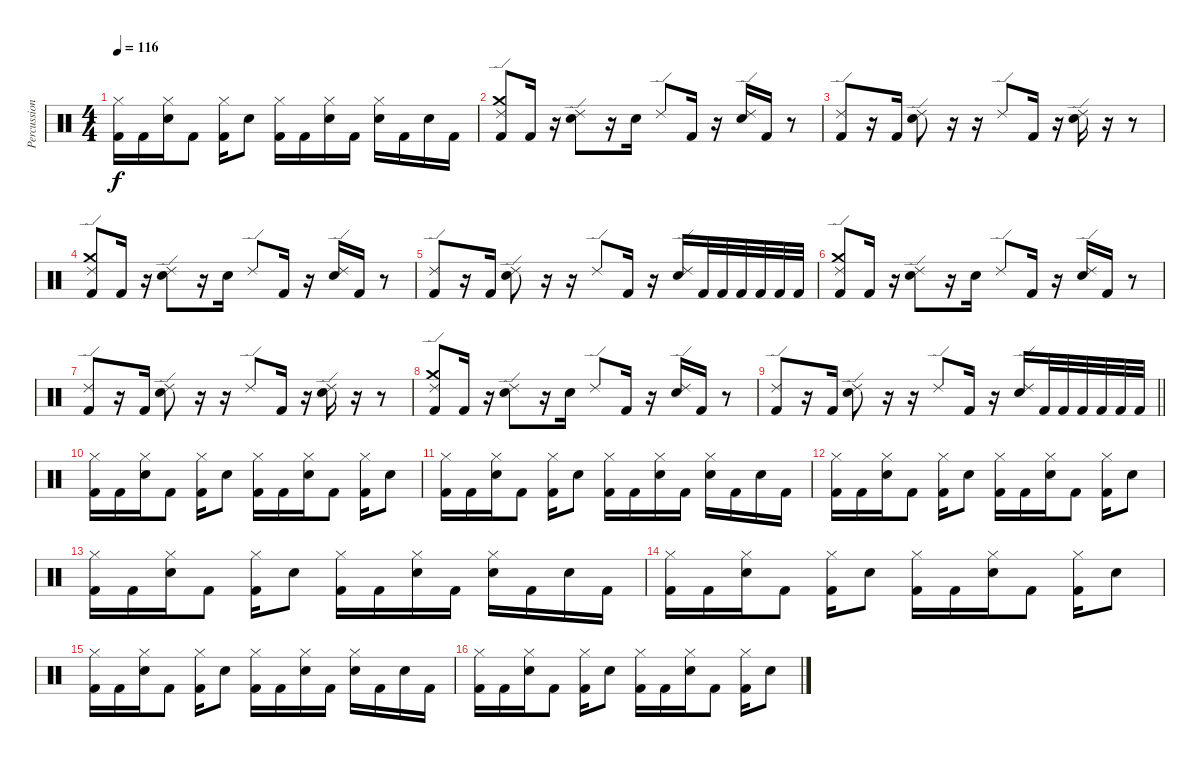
\track ("Percussion" "Percussion") {instrument percussion}
\staff {score}
\articulation defaults
\ts (4 4)
\tempo 116
\clef neutral
\ks c
("Hi-Hat (closed)" "Kick (hit) 2").16{dy f} "Kick (hit) 2".16 ("Hi-Hat (closed)" "Electric Snare (hit)").16 "Kick (hit) 2".8 ("Hi-Hat (closed)" "Kick (hit) 2").16 "Electric Snare (hit)".8 ("Hi-Hat (closed)" "Kick (hit) 2").16 "Kick (hit) 2".16 ("Hi-Hat (closed)" "Electric Snare (hit)").16 "Kick (hit) 2".16 ("Hi-Hat (closed)" "Electric Snare (hit)").16 "Kick (hit) 2".16 "Electric Snare (hit)".16 "Kick (hit) 2".16 |
("Crash medium (hit)" "Ride (edge) 2" "Kick (hit) 2").8 "Kick (hit) 2".16 r.16 ("Ride (edge) 2" "Electric Snare (hit)").8 r.16 "Electric Snare (hit)".16 "Ride (edge) 2".8 "Kick (hit) 2".16 r.16 ("Ride (edge) 2" "Electric Snare (hit)").16 "Kick (hit) 2".16 r.8 |
("Ride (edge) 2" "Kick (hit) 2").8 r.16 "Kick (hit) 2".16 ("Ride (edge) 2" "Electric Snare (hit)").8 r.16 r.16 "Ride (edge) 2".8 "Kick (hit) 2".16 r.16 ("Ride (edge) 2" "Electric Snare (hit)").16 r.16 r.8 |
("Crash medium (hit)" "Ride (edge) 2" "Kick (hit) 2").8 "Kick (hit) 2".16 r.16 ("Ride (edge) 2" "Electric Snare (hit)").8 r.16 "Electric Snare (hit)".16 "Ride (edge) 2".8 "Kick (hit) 2".16 r.16 ("Ride (edge) 2" "Electric Snare (hit)").16 "Kick (hit) 2".16 r.8 |
("Ride (edge) 2" "Kick (hit) 2").8 r.16 "Kick (hit) 2".16 ("Ride (edge) 2" "Electric Snare (hit)").8 r.16 r.16 "Ride (edge) 2".8 "Kick (hit) 2".16 r.16 ("Ride (edge) 2" "Electric Snare (hit)").16 "Kick (hit) 2".32 "Kick (hit) 2".32 "Kick (hit) 2".32 "Kick (hit) 2".32 "Kick (hit) 2".32 "Kick (hit) 2".32 |
("Crash medium (hit)" "Ride (edge) 2" "Kick (hit) 2").8 "Kick (hit) 2".16 r.16 ("Ride (edge) 2" "Electric Snare (hit)").8 r.16 "Electric Snare (hit)".16 "Ride (edge) 2".8 "Kick (hit) 2".16 r.16 ("Ride (edge) 2" "Electric Snare (hit)").16 "Kick (hit) 2".16 r.8 |
("Ride (edge) 2" "Kick (hit) 2").8 r.16 "Kick (hit) 2".16 ("Ride (edge) 2" "Electric Snare (hit)").8 r.16 r.16 "Ride (edge) 2".8 "Kick (hit) 2".16 r.16 ("Ride (edge) 2" "Electric Snare (hit)").16 r.16 r.8 |
("Crash medium (hit)" "Ride (edge) 2" "Kick (hit) 2").8 "Kick (hit) 2".16 r.16 ("Ride (edge) 2" "Electric Snare (hit)").8 r.16 "Electric Snare (hit)".16 "Ride (edge) 2".8 "Kick (hit) 2".16 r.16 ("Ride (edge) 2" "Electric Snare (hit)").16 "Kick (hit) 2".16 r.8 |
\barLineRight lightlight
("Ride (edge) 2" "Kick (hit) 2").8 r.16 "Kick (hit) 2".16 ("Ride (edge) 2" "Electric Snare (hit)").8 r.16 r.16 "Ride (edge) 2".8 "Kick (hit) 2".16 r.16 ("Ride (edge) 2" "Electric Snare (hit)").16 "Kick (hit) 2".32 "Kick (hit) 2".32 "Kick (hit) 2".32 "Kick (hit) 2".32 "Kick (hit) 2".32 "Kick (hit) 2".32 |
("Hi-Hat (closed)" "Kick (hit) 2").16 "Kick (hit) 2".16 ("Hi-Hat (closed)" "Electric Snare (hit)").16 "Kick (hit) 2".8 ("Hi-Hat (closed)" "Kick (hit) 2").16 "Electric Snare (hit)".8 ("Hi-Hat (closed)" "Kick (hit) 2").16 "Kick (hit) 2".16 ("Hi-Hat (closed)" "Electric Snare (hit)").16 "Kick (hit) 2".8 ("Hi-Hat (closed)" "Kick (hit) 2").16 "Electric Snare (hit)".8 |
("Hi-Hat (closed)" "Kick (hit) 2").16 "Kick (hit) 2".16 ("Hi-Hat (closed)" "Electric Snare (hit)").16 "Kick (hit) 2".8 ("Hi-Hat (closed)" "Kick (hit) 2").16 "Electric Snare (hit)".8 ("Hi-Hat (closed)" "Kick (hit) 2").16 "Kick (hit) 2".16 ("Hi-Hat (closed)" "Electric Snare (hit)").16 "Kick (hit) 2".16 ("Hi-Hat (closed)" "Electric Snare (hit)").16 "Kick (hit) 2".16 "Electric Snare (hit)".16 "Kick (hit) 2".16 |
("Hi-Hat (closed)" "Kick (hit) 2").16 "Kick (hit) 2".16 ("Hi-Hat (closed)" "Electric Snare (hit)").16 "Kick (hit) 2".8 ("Hi-Hat (closed)" "Kick (hit) 2").16 "Electric Snare (hit)".8 ("Hi-Hat (closed)" "Kick (hit) 2").16 "Kick (hit) 2".16 ("Hi-Hat (closed)" "Electric Snare (hit)").16 "Kick (hit) 2".8 ("Hi-Hat (closed)" "Kick (hit) 2").16 "Electric Snare (hit)".8 |
("Hi-Hat (closed)" "Kick (hit) 2").16 "Kick (hit) 2".16 ("Hi-Hat (closed)" "Electric Snare (hit)").16 "Kick (hit) 2".8 ("Hi-Hat (closed)" "Kick (hit) 2").16 "Electric Snare (hit)".8 ("Hi-Hat (closed)" "Kick (hit) 2").16 "Kick (hit) 2".16 ("Hi-Hat (closed)" "Electric Snare (hit)").16 "Kick (hit) 2".16 ("Hi-Hat (closed)" "Electric Snare (hit)").16 "Kick (hit) 2".16 "Electric Snare (hit)".16 "Kick (hit) 2".16 |
("Hi-Hat (closed)" "Kick (hit) 2").16 "Kick (hit) 2".16 ("Hi-Hat (closed)" "Electric Snare (hit)").16 "Kick (hit) 2".8 ("Hi-Hat (closed)" "Kick (hit) 2").16 "Electric Snare (hit)".8 ("Hi-Hat (closed)" "Kick (hit) 2").16 "Kick (hit) 2".16 ("Hi-Hat (closed)" "Electric Snare (hit)").16 "Kick (hit) 2".8 ("Hi-Hat (closed)" "Kick (hit) 2").16 "Electric Snare (hit)".8 |
("Hi-Hat (closed)" "Kick (hit) 2").16 "Kick (hit) 2".16 ("Hi-Hat (closed)" "Electric Snare (hit)").16 "Kick (hit) 2".8 ("Hi-Hat (closed)" "Kick (hit) 2").16 "Electric Snare (hit)".8 ("Hi-Hat (closed)" "Kick (hit) 2").16 "Kick (hit) 2".16 ("Hi-Hat (closed)" "Electric Snare (hit)").16 "Kick (hit) 2".16 ("Hi-Hat (closed)" "Electric Snare (hit)").16 "Kick (hit) 2".16 "Electric Snare (hit)".16 "Kick (hit) 2".16 |
("Hi-Hat (closed)" "Kick (hit) 2").16 "Kick (hit) 2".16 ("Hi-Hat (closed)" "Electric Snare (hit)").16 "Kick (hit) 2".8 ("Hi-Hat (closed)" "Kick (hit) 2").16 "Electric Snare (hit)".8 ("Hi-Hat (closed)" "Kick (hit) 2").16 "Kick (hit) 2".16 ("Hi-Hat (closed)" "Electric Snare (hit)").16 "Kick (hit) 2".8 ("Hi-Hat (closed)" "Kick (hit) 2").16 "Electric Snare (hit)".8
